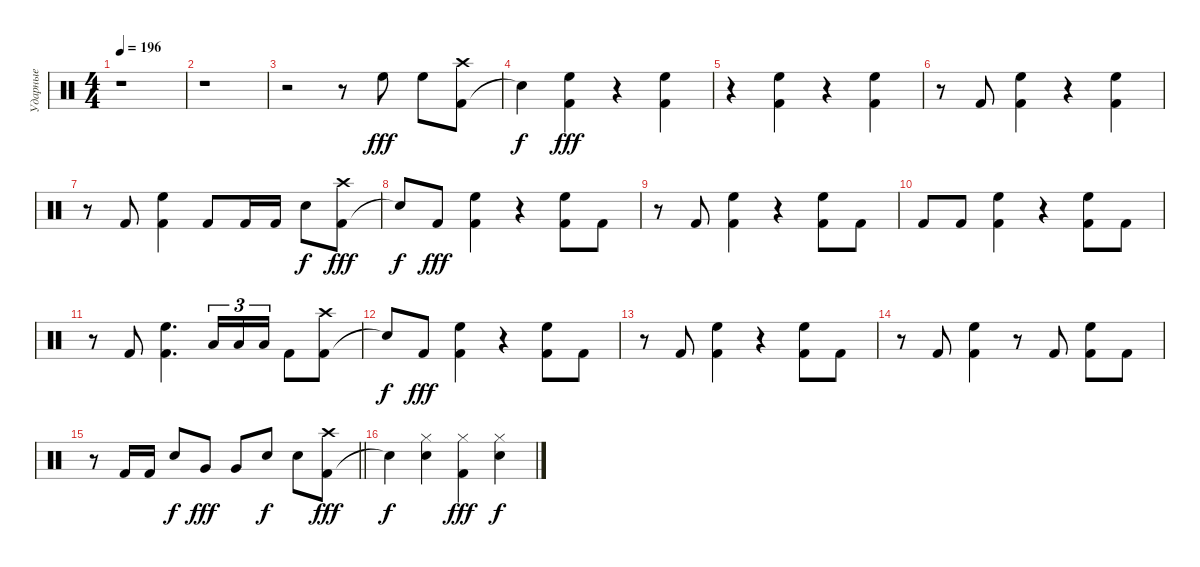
\track ("Ударные" "Ударные") {instrument percussion}
\staff {score}
\articulation defaults
\ts (4 4)
\tempo 196
\clef neutral
\ks c
r.1{dy f} |
r.1 |
r.2 r.8 "High Floor Tom (hit)".8{dy fff} "High Floor Tom (hit)".8 ("Kick (hit) 2" "Crash high (hit)").8 |
"Snare (hit)"{t}.4{dy f} ("Kick (hit) 2" "High Floor Tom (hit)").4{dy fff} r.4 ("Kick (hit) 2" "High Floor Tom (hit)").4 |
r.4 ("Kick (hit) 2" "High Floor Tom (hit)").4 r.4 ("Kick (hit) 2" "High Floor Tom (hit)").4 |
r.8 "Kick (hit) 2".8 ("Kick (hit) 2" "High Floor Tom (hit)").4 r.4 ("Kick (hit) 2" "High Floor Tom (hit)").4 |
r.8 "Kick (hit) 2".8 ("Kick (hit) 2" "High Floor Tom (hit)").4 "Kick (hit) 2".8 "Kick (hit) 2".16 "Kick (hit) 2".16 "Snare (hit) 2".8{dy f} ("Kick (hit) 2" "Crash high (hit)").8{dy fff} |
"Snare (hit)"{t}.8{dy f} "Kick (hit) 2".8{dy fff} ("Kick (hit) 2" "High Floor Tom (hit)").4 r.4 ("Kick (hit) 2" "High Floor Tom (hit)").8 "Kick (hit) 2".8 |
r.8 "Kick (hit) 2".8 ("Kick (hit) 2" "High Floor Tom (hit)").4 r.4 ("Kick (hit) 2" "High Floor Tom (hit)").8 "Kick (hit) 2".8 |
"Kick (hit) 2".8 "Kick (hit) 2".8 ("Kick (hit) 2" "High Floor Tom (hit)").4 r.4 ("Kick (hit) 2" "High Floor Tom (hit)").8 "Kick (hit) 2".8 |
r.8 "Kick (hit) 2".8 ("Kick (hit) 2" "High Floor Tom (hit)").4{d} "Low Tom (hit)".16{tu (3 2)} "Low Tom (hit)".16{tu (3 2)} "Low Tom (hit)".16{tu (3 2)} "Kick (hit) 2".8 ("Kick (hit) 2" "Crash high (hit)").8 |
"Snare (hit)"{t}.8{dy f} "Kick (hit) 2".8{dy fff} ("Kick (hit) 2" "High Floor Tom (hit)").4 r.4 ("Kick (hit) 2" "High Floor Tom (hit)").8 "Kick (hit) 2".8 |
r.8 "Kick (hit) 2".8 ("Kick (hit) 2" "High Floor Tom (hit)").4 r.4 ("Kick (hit) 2" "High Floor Tom (hit)").8 "Kick (hit) 2".8 |
r.8 "Kick (hit) 2".8 ("Kick (hit) 2" "High Floor Tom (hit)").4 r.8 "Kick (hit) 2".8 ("Kick (hit) 2" "High Floor Tom (hit)").8 "Kick (hit) 2".8 |
\barLineRight lightlight
r.8 "Kick (hit) 2".16 "Kick (hit) 2".16 "Snare (hit) 2".8{dy f} "Very Low Tom (hit)".8{dy fff} "Very Low Tom (hit)".8 "Snare (hit) 2".8{dy f} "Snare (hit) 2".8 ("Kick (hit) 2" "Crash high (hit)").8{dy fff} |
"Snare (hit)"{t}.4{dy f} ("Snare (hit) 2" "Hi-Hat (closed)").4 ("Kick (hit) 2" "Hi-Hat (closed)").4{dy fff} ("Snare (hit) 2" "Hi-Hat (closed)").4{dy f}
